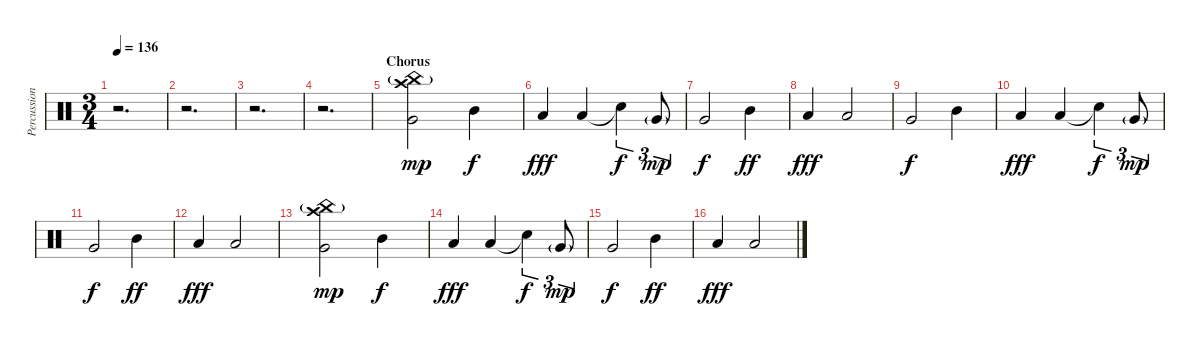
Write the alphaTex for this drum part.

\track ("Percussions / Stephen Van Haestregt" "Percussion") {instrument percussion}
\staff {score}
\articulation defaults
\ts (3 4)
\tempo 136
\clef neutral
\ks c
r.2{d dy mp} |
r.2{d} |
r.2{d} |
r.2{d} |
\section ("" "Chorus")
("Crash high (hit)" "China (hit)"{g} "Very Low Tom (hit)").2{volume 10} "Mid Tom (hit)".4{dy f} |
"Low Tom (hit)".4{dy fff} "Low Tom (hit)".4 "Snare (hit)"{t}.4{tu (3 2) dy f} "Very Low Tom (hit)"{g}.8{tu (3 2) dy mp} |
"Very Low Tom (hit)".2{dy f} "Mid Tom (hit)".4{dy ff} |
"Low Tom (hit)".4{dy fff} "Low Tom (hit)".2 |
"Very Low Tom (hit)".2{dy f} "Mid Tom (hit)".4 |
"Low Tom (hit)".4{dy fff} "Low Tom (hit)".4 "Snare (hit)"{t}.4{tu (3 2) dy f} "Very Low Tom (hit)"{g}.8{tu (3 2) dy mp} |
"Very Low Tom (hit)".2{dy f} "Mid Tom (hit)".4{dy ff} |
"Low Tom (hit)".4{dy fff} "Low Tom (hit)".2 |
("Crash high (hit)" "China (hit)"{g} "Very Low Tom (hit)").2{dy mp} "Mid Tom (hit)".4{dy f} |
"Low Tom (hit)".4{dy fff} "Low Tom (hit)".4 "Snare (hit)"{t}.4{tu (3 2) dy f} "Very Low Tom (hit)"{g}.8{tu (3 2) dy mp} |
"Very Low Tom (hit)".2{dy f} "Mid Tom (hit)".4{dy ff} |
"Low Tom (hit)".4{dy fff} "Low Tom (hit)".2
